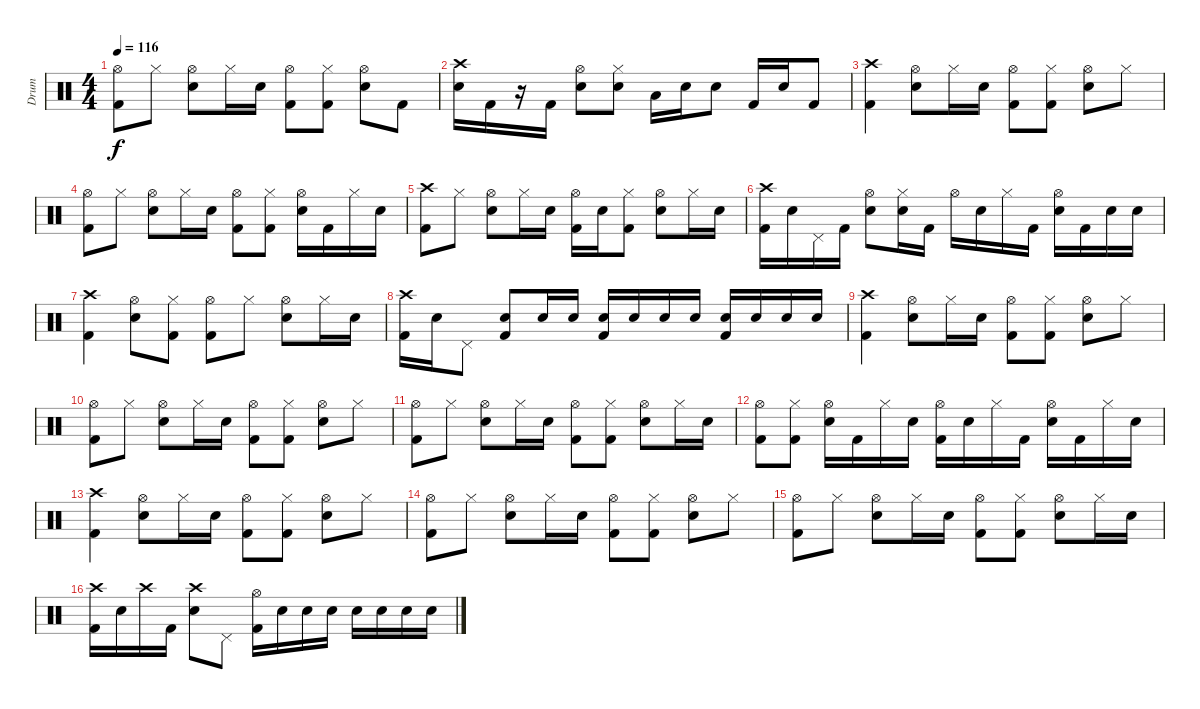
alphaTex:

\track ("Drum" "Drum") {instrument percussion}
\staff {score}
\articulation defaults
\ts (4 4)
\tempo 116
\clef neutral
\ks c
("Hi-Hat (open)" "Kick (hit) 2").8{dy f} "Hi-Hat (closed)".8 ("Hi-Hat (open)" "Electric Snare (hit)").8 "Hi-Hat (closed)".16 "Electric Snare (hit)".16 ("Hi-Hat (open)" "Kick (hit) 2").8 ("Hi-Hat (closed)" "Kick (hit) 2").8 ("Hi-Hat (open)" "Electric Snare (hit)").8 "Kick (hit) 2".8 |
("Crash high (hit)" "Electric Snare (hit)").16 "Kick (hit) 2".16 r.16 "Kick (hit) 2".16 ("Hi-Hat (open)" "Electric Snare (hit)").8 ("Hi-Hat (closed)" "Electric Snare (hit)").8 "Low Tom (hit)".16 "Electric Snare (hit)".16 "Electric Snare (hit)".8 "Kick (hit) 2".16 "Electric Snare (hit)".16 "Kick (hit) 2".8 |
("Crash high (hit)" "Kick (hit) 2").4 ("Hi-Hat (open)" "Electric Snare (hit)").8 "Hi-Hat (closed)".16 "Electric Snare (hit)".16 ("Hi-Hat (open)" "Kick (hit) 2").8 ("Hi-Hat (closed)" "Kick (hit) 2").8 ("Hi-Hat (open)" "Electric Snare (hit)").8 "Hi-Hat (closed)".8 |
("Hi-Hat (open)" "Kick (hit) 2").8 "Hi-Hat (closed)".8 ("Hi-Hat (open)" "Electric Snare (hit)").8 "Hi-Hat (closed)".16 "Electric Snare (hit)".16 ("Hi-Hat (open)" "Kick (hit) 2").8 ("Hi-Hat (closed)" "Kick (hit) 2").8 ("Hi-Hat (open)" "Electric Snare (hit)").16 "Kick (hit) 2".16 "Hi-Hat (closed)".16 "Electric Snare (hit)".16 |
("Crash high (hit)" "Kick (hit) 2").8 "Hi-Hat (closed)".8 ("Hi-Hat (open)" "Electric Snare (hit)").8 "Hi-Hat (closed)".16 "Electric Snare (hit)".16 ("Hi-Hat (open)" "Kick (hit) 2").16 "Electric Snare (hit)".16 ("Hi-Hat (closed)" "Kick (hit) 2").8 ("Hi-Hat (open)" "Electric Snare (hit)").8 "Hi-Hat (closed)".16 "Electric Snare (hit)".16 |
("Crash high (hit)" "Kick (hit) 2").16 "Electric Snare (hit)".16 "Pedal Hi-Hat (hit)".16 "Kick (hit) 2".16 ("Hi-Hat (open)" "Electric Snare (hit)").8 ("Hi-Hat (closed)" "Electric Snare (hit)").16 "Kick (hit) 2".16 "Hi-Hat (open)".16 "Electric Snare (hit)".16 "Hi-Hat (closed)".16 "Kick (hit) 2".16 ("Hi-Hat (open)" "Electric Snare (hit)").16 "Kick (hit) 2".16 "Electric Snare (hit)".16 "Electric Snare (hit)".16 |
("Crash high (hit)" "Kick (hit) 2").4 ("Hi-Hat (open)" "Electric Snare (hit)").8 ("Hi-Hat (closed)" "Kick (hit) 2").8 ("Hi-Hat (open)" "Kick (hit) 2").8 "Hi-Hat (closed)".8 ("Hi-Hat (open)" "Electric Snare (hit)").8 "Hi-Hat (closed)".16 "Electric Snare (hit)".16 |
("Crash high (hit)" "Kick (hit) 2").16 "Electric Snare (hit)".16 "Pedal Hi-Hat (hit)".8 ("Electric Snare (hit)" "Kick (hit) 2").8 "Electric Snare (hit)".16 "Electric Snare (hit)".16 ("Electric Snare (hit)" "Kick (hit) 2").16 "Electric Snare (hit)".16 "Electric Snare (hit)".16 "Electric Snare (hit)".16 ("Electric Snare (hit)" "Kick (hit) 2").16 "Electric Snare (hit)".16 "Electric Snare (hit)".16 "Electric Snare (hit)".16 |
("Crash high (hit)" "Kick (hit) 2").4 ("Hi-Hat (open)" "Electric Snare (hit)").8 "Hi-Hat (closed)".16 "Electric Snare (hit)".16 ("Hi-Hat (open)" "Kick (hit) 2").8 ("Hi-Hat (closed)" "Kick (hit) 2").8 ("Hi-Hat (open)" "Electric Snare (hit)").8 "Hi-Hat (closed)".8 |
("Hi-Hat (open)" "Kick (hit) 2").8 "Hi-Hat (closed)".8 ("Hi-Hat (open)" "Electric Snare (hit)").8 "Hi-Hat (closed)".16 "Electric Snare (hit)".16 ("Hi-Hat (open)" "Kick (hit) 2").8 ("Hi-Hat (closed)" "Kick (hit) 2").8 ("Hi-Hat (open)" "Electric Snare (hit)").8 "Hi-Hat (closed)".8 |
("Hi-Hat (open)" "Kick (hit) 2").8 "Hi-Hat (closed)".8 ("Hi-Hat (open)" "Electric Snare (hit)").8 "Hi-Hat (closed)".16 "Electric Snare (hit)".16 ("Hi-Hat (open)" "Kick (hit) 2").8 ("Hi-Hat (closed)" "Kick (hit) 2").8 ("Hi-Hat (open)" "Electric Snare (hit)").8 "Hi-Hat (closed)".16 "Electric Snare (hit)".16 |
("Hi-Hat (open)" "Kick (hit) 2").8 ("Hi-Hat (closed)" "Kick (hit) 2").8 ("Hi-Hat (open)" "Electric Snare (hit)").16 "Kick (hit) 2".16 "Hi-Hat (closed)".16 "Electric Snare (hit)".16 ("Hi-Hat (open)" "Kick (hit) 2").16 "Electric Snare (hit)".16 "Hi-Hat (closed)".16 "Kick (hit) 2".16 ("Hi-Hat (open)" "Electric Snare (hit)").16 "Kick (hit) 2".16 "Hi-Hat (closed)".16 "Electric Snare (hit)".16 |
("Crash high (hit)" "Kick (hit) 2").4 ("Hi-Hat (open)" "Electric Snare (hit)").8 "Hi-Hat (closed)".16 "Electric Snare (hit)".16 ("Hi-Hat (open)" "Kick (hit) 2").8 ("Hi-Hat (closed)" "Kick (hit) 2").8 ("Hi-Hat (open)" "Electric Snare (hit)").8 "Hi-Hat (closed)".8 |
("Hi-Hat (open)" "Kick (hit) 2").8 "Hi-Hat (closed)".8 ("Hi-Hat (open)" "Electric Snare (hit)").8 "Hi-Hat (closed)".16 "Electric Snare (hit)".16 ("Hi-Hat (open)" "Kick (hit) 2").8 ("Hi-Hat (closed)" "Kick (hit) 2").8 ("Hi-Hat (open)" "Electric Snare (hit)").8 "Hi-Hat (closed)".8 |
("Hi-Hat (open)" "Kick (hit) 2").8 "Hi-Hat (closed)".8 ("Hi-Hat (open)" "Electric Snare (hit)").8 "Hi-Hat (closed)".16 "Electric Snare (hit)".16 ("Hi-Hat (open)" "Kick (hit) 2").8 ("Hi-Hat (closed)" "Kick (hit) 2").8 ("Hi-Hat (open)" "Electric Snare (hit)").8 "Hi-Hat (closed)".16 "Electric Snare (hit)".16 |
("Crash high (hit)" "Kick (hit) 2").16 "Electric Snare (hit)".16 "Crash high (hit)".16 "Kick (hit) 2".16 ("Crash high (hit)" "Electric Snare (hit)").8 "Pedal Hi-Hat (hit)".8 ("Hi-Hat (open)" "Kick (hit) 2").16 "Electric Snare (hit)".16 "Electric Snare (hit)".16 "Electric Snare (hit)".16 "Electric Snare (hit)".16 "Electric Snare (hit)".16 "Electric Snare (hit)".16 "Electric Snare (hit)".16
